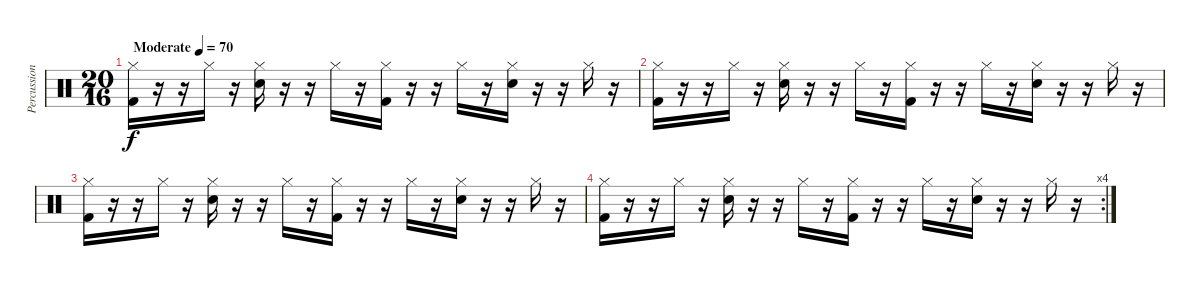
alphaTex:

\track ("Percussion" "Percussion") {instrument percussion}
\staff {score}
\articulation defaults
\ts (20 16)
\tempo (70 "Moderate")
\clef neutral
\ks c
("Hi-Hat (closed)" "Kick (hit) 2").16{dy f} r.16 r.16 "Hi-Hat (closed)".16 r.16 ("Hi-Hat (closed)" "Electric Snare (hit)").16 r.16 r.16 "Hi-Hat (closed)".16 r.16 ("Hi-Hat (closed)" "Kick (hit) 2").16 r.16 r.16 "Hi-Hat (closed)".16 r.16 ("Hi-Hat (closed)" "Electric Snare (hit)").16 r.16 r.16 "Hi-Hat (closed)".16 r.16 |
("Hi-Hat (closed)" "Kick (hit) 2").16 r.16 r.16 "Hi-Hat (closed)".16 r.16 ("Hi-Hat (closed)" "Electric Snare (hit)").16 r.16 r.16 "Hi-Hat (closed)".16 r.16 ("Hi-Hat (closed)" "Kick (hit) 2").16 r.16 r.16 "Hi-Hat (closed)".16 r.16 ("Hi-Hat (closed)" "Electric Snare (hit)").16 r.16 r.16 "Hi-Hat (closed)".16 r.16 |
("Hi-Hat (closed)" "Kick (hit) 2").16 r.16 r.16 "Hi-Hat (closed)".16 r.16 ("Hi-Hat (closed)" "Electric Snare (hit)").16 r.16 r.16 "Hi-Hat (closed)".16 r.16 ("Hi-Hat (closed)" "Kick (hit) 2").16 r.16 r.16 "Hi-Hat (closed)".16 r.16 ("Hi-Hat (closed)" "Electric Snare (hit)").16 r.16 r.16 "Hi-Hat (closed)".16 r.16 |
\rc 4
("Hi-Hat (closed)" "Kick (hit) 2").16 r.16 r.16 "Hi-Hat (closed)".16 r.16 ("Hi-Hat (closed)" "Electric Snare (hit)").16 r.16 r.16 "Hi-Hat (closed)".16 r.16 ("Hi-Hat (closed)" "Kick (hit) 2").16 r.16 r.16 "Hi-Hat (closed)".16 r.16 ("Hi-Hat (closed)" "Electric Snare (hit)").16 r.16 r.16 "Hi-Hat (closed)".16 r.16
